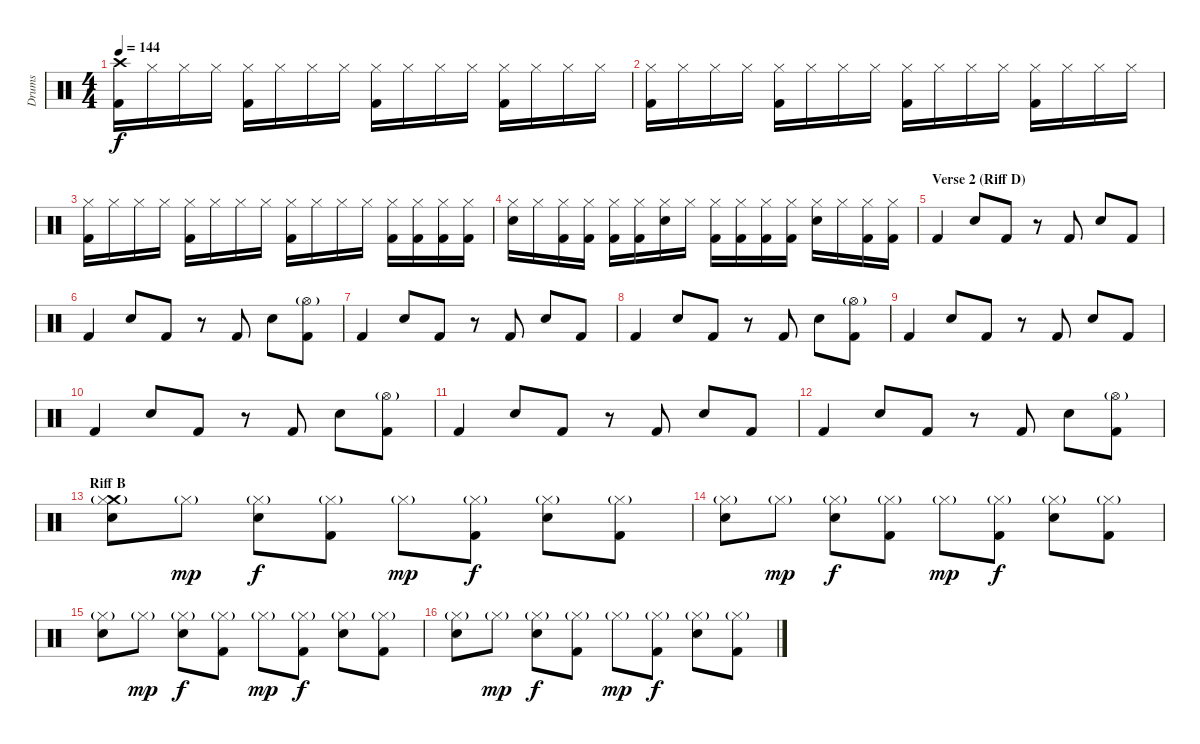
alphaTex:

\track ("Drums" "Drums") {instrument percussion}
\staff {score}
\articulation defaults
\ts (4 4)
\tempo 144
\clef neutral
\ks c
("Crash high (hit)" "Kick (hit) 2").16{dy f} "Hi-Hat (closed)".16 "Hi-Hat (closed)".16 "Hi-Hat (closed)".16 ("Hi-Hat (closed)" "Kick (hit) 2").16 "Hi-Hat (closed)".16 "Hi-Hat (closed)".16 "Hi-Hat (closed)".16 ("Hi-Hat (closed)" "Kick (hit) 2").16 "Hi-Hat (closed)".16 "Hi-Hat (closed)".16 "Hi-Hat (closed)".16 ("Hi-Hat (closed)" "Kick (hit) 2").16 "Hi-Hat (closed)".16 "Hi-Hat (closed)".16 "Hi-Hat (closed)".16 |
("Hi-Hat (closed)" "Kick (hit) 2").16 "Hi-Hat (closed)".16 "Hi-Hat (closed)".16 "Hi-Hat (closed)".16 ("Hi-Hat (closed)" "Kick (hit) 2").16 "Hi-Hat (closed)".16 "Hi-Hat (closed)".16 "Hi-Hat (closed)".16 ("Hi-Hat (closed)" "Kick (hit) 2").16 "Hi-Hat (closed)".16 "Hi-Hat (closed)".16 "Hi-Hat (closed)".16 ("Hi-Hat (closed)" "Kick (hit) 2").16 "Hi-Hat (closed)".16 "Hi-Hat (closed)".16 "Hi-Hat (closed)".16 |
("Hi-Hat (closed)" "Kick (hit) 2").16 "Hi-Hat (closed)".16 "Hi-Hat (closed)".16 "Hi-Hat (closed)".16 ("Hi-Hat (closed)" "Kick (hit) 2").16 "Hi-Hat (closed)".16 "Hi-Hat (closed)".16 "Hi-Hat (closed)".16 ("Hi-Hat (closed)" "Kick (hit) 2").16 "Hi-Hat (closed)".16 "Hi-Hat (closed)".16 "Hi-Hat (closed)".16 ("Hi-Hat (closed)" "Kick (hit) 2").16 ("Hi-Hat (closed)" "Kick (hit) 2").16 ("Hi-Hat (closed)" "Kick (hit) 2").16 ("Hi-Hat (closed)" "Kick (hit) 2").16 |
("Hi-Hat (closed)" "Snare (hit) 2").16 "Hi-Hat (closed)".16 ("Hi-Hat (closed)" "Kick (hit) 2").16 ("Hi-Hat (closed)" "Kick (hit) 2").16 ("Hi-Hat (closed)" "Kick (hit) 2").16 ("Hi-Hat (closed)" "Kick (hit) 2").16 ("Hi-Hat (closed)" "Snare (hit) 2").16 "Hi-Hat (closed)".16 ("Hi-Hat (closed)" "Kick (hit) 2").16 ("Hi-Hat (closed)" "Kick (hit) 2").16 ("Hi-Hat (closed)" "Kick (hit) 2").16 ("Hi-Hat (closed)" "Kick (hit) 2").16 ("Hi-Hat (closed)" "Snare (hit) 2").16 "Hi-Hat (closed)".16 ("Hi-Hat (closed)" "Kick (hit) 2").16 ("Hi-Hat (closed)" "Kick (hit) 2").16 |
\section ("" "Verse 2 (Riff D)")
"Kick (hit) 2".4 "Snare (hit) 2".8 "Kick (hit) 2".8 r.8 "Kick (hit) 2".8 "Snare (hit) 2".8 "Kick (hit) 2".8 |
"Kick (hit) 2".4 "Snare (hit) 2".8 "Kick (hit) 2".8 r.8 "Kick (hit) 2".8 "Snare (hit) 2".8 ("Hi-Hat (open)"{g} "Kick (hit) 2").8 |
"Kick (hit) 2".4 "Snare (hit) 2".8 "Kick (hit) 2".8 r.8 "Kick (hit) 2".8 "Snare (hit) 2".8 "Kick (hit) 2".8 |
"Kick (hit) 2".4 "Snare (hit) 2".8 "Kick (hit) 2".8 r.8 "Kick (hit) 2".8 "Snare (hit) 2".8 ("Hi-Hat (open)"{g} "Kick (hit) 2").8 |
"Kick (hit) 2".4 "Snare (hit) 2".8 "Kick (hit) 2".8 r.8 "Kick (hit) 2".8 "Snare (hit) 2".8 "Kick (hit) 2".8 |
"Kick (hit) 2".4 "Snare (hit) 2".8 "Kick (hit) 2".8 r.8 "Kick (hit) 2".8 "Snare (hit) 2".8 ("Hi-Hat (open)"{g} "Kick (hit) 2").8 |
"Kick (hit) 2".4 "Snare (hit) 2".8 "Kick (hit) 2".8 r.8 "Kick (hit) 2".8 "Snare (hit) 2".8 "Kick (hit) 2".8 |
"Kick (hit) 2".4 "Snare (hit) 2".8 "Kick (hit) 2".8 r.8 "Kick (hit) 2".8 "Snare (hit) 2".8 ("Hi-Hat (open)"{g} "Kick (hit) 2").8 |
\section ("" "Riff B")
("Crash medium (hit)" "Hi-Hat (closed)"{g} "Electric Snare (hit)").8 "Hi-Hat (closed)"{g}.8{dy mp} ("Hi-Hat (closed)"{g} "Electric Snare (hit)").8{dy f} ("Hi-Hat (closed)"{g} "Kick (hit) 2").8 "Hi-Hat (closed)"{g}.8{dy mp} ("Hi-Hat (closed)"{g} "Kick (hit) 2").8{dy f} ("Hi-Hat (closed)"{g} "Electric Snare (hit)").8 ("Hi-Hat (closed)"{g} "Kick (hit) 2").8 |
("Hi-Hat (closed)"{g} "Electric Snare (hit)").8 "Hi-Hat (closed)"{g}.8{dy mp} ("Hi-Hat (closed)"{g} "Electric Snare (hit)").8{dy f} ("Hi-Hat (closed)"{g} "Kick (hit) 2").8 "Hi-Hat (closed)"{g}.8{dy mp} ("Hi-Hat (closed)"{g} "Kick (hit) 2").8{dy f} ("Hi-Hat (closed)"{g} "Electric Snare (hit)").8 ("Hi-Hat (closed)"{g} "Kick (hit) 2").8 |
("Hi-Hat (closed)"{g} "Electric Snare (hit)").8 "Hi-Hat (closed)"{g}.8{dy mp} ("Hi-Hat (closed)"{g} "Electric Snare (hit)").8{dy f} ("Hi-Hat (closed)"{g} "Kick (hit) 2").8 "Hi-Hat (closed)"{g}.8{dy mp} ("Hi-Hat (closed)"{g} "Kick (hit) 2").8{dy f} ("Hi-Hat (closed)"{g} "Electric Snare (hit)").8 ("Hi-Hat (closed)"{g} "Kick (hit) 2").8 |
("Hi-Hat (closed)"{g} "Electric Snare (hit)").8 "Hi-Hat (closed)"{g}.8{dy mp} ("Hi-Hat (closed)"{g} "Electric Snare (hit)").8{dy f} ("Hi-Hat (closed)"{g} "Kick (hit) 2").8 "Hi-Hat (closed)"{g}.8{dy mp} ("Hi-Hat (closed)"{g} "Kick (hit) 2").8{dy f} ("Hi-Hat (closed)"{g} "Electric Snare (hit)").8 ("Hi-Hat (closed)"{g} "Kick (hit) 2").8
